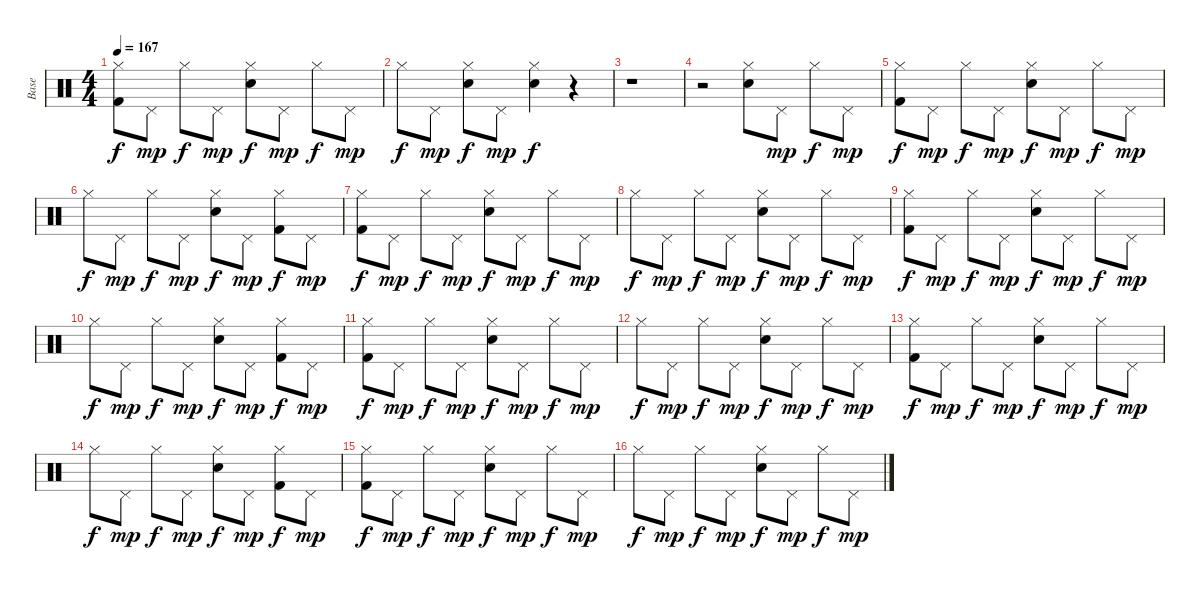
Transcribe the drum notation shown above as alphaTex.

\track ("Base" "Base") {instrument percussion}
\staff {score}
\articulation defaults
\ts (4 4)
\tempo 167
\clef neutral
\ks c
("Hi-Hat (closed)" "Kick (hit) 2").8{dy f} "Pedal Hi-Hat (hit)".8{dy mp} "Hi-Hat (closed)".8{dy f} "Pedal Hi-Hat (hit)".8{dy mp} ("Electric Snare (hit)" "Hi-Hat (closed)").8{dy f} "Pedal Hi-Hat (hit)".8{dy mp} "Hi-Hat (closed)".8{dy f} "Pedal Hi-Hat (hit)".8{dy mp} |
"Hi-Hat (closed)".8{dy f} "Pedal Hi-Hat (hit)".8{dy mp} ("Electric Snare (hit)" "Hi-Hat (closed)").8{dy f} "Pedal Hi-Hat (hit)".8{dy mp} ("Electric Snare (hit)" "Hi-Hat (closed)").4{dy f} r.4 |
r.1 |
r.2 ("Electric Snare (hit)" "Hi-Hat (closed)").8 "Pedal Hi-Hat (hit)".8{dy mp} "Hi-Hat (closed)".8{dy f} "Pedal Hi-Hat (hit)".8{dy mp} |
("Hi-Hat (closed)" "Kick (hit) 2").8{dy f} "Pedal Hi-Hat (hit)".8{dy mp} "Hi-Hat (closed)".8{dy f} "Pedal Hi-Hat (hit)".8{dy mp} ("Electric Snare (hit)" "Hi-Hat (closed)").8{dy f} "Pedal Hi-Hat (hit)".8{dy mp} "Hi-Hat (closed)".8{dy f} "Pedal Hi-Hat (hit)".8{dy mp} |
"Hi-Hat (closed)".8{dy f} "Pedal Hi-Hat (hit)".8{dy mp} "Hi-Hat (closed)".8{dy f} "Pedal Hi-Hat (hit)".8{dy mp} ("Electric Snare (hit)" "Hi-Hat (closed)").8{dy f} "Pedal Hi-Hat (hit)".8{dy mp} ("Hi-Hat (closed)" "Kick (hit) 2").8{dy f} "Pedal Hi-Hat (hit)".8{dy mp} |
("Hi-Hat (closed)" "Kick (hit) 2").8{dy f} "Pedal Hi-Hat (hit)".8{dy mp} "Hi-Hat (closed)".8{dy f} "Pedal Hi-Hat (hit)".8{dy mp} ("Electric Snare (hit)" "Hi-Hat (closed)").8{dy f} "Pedal Hi-Hat (hit)".8{dy mp} "Hi-Hat (closed)".8{dy f} "Pedal Hi-Hat (hit)".8{dy mp} |
"Hi-Hat (closed)".8{dy f} "Pedal Hi-Hat (hit)".8{dy mp} "Hi-Hat (closed)".8{dy f} "Pedal Hi-Hat (hit)".8{dy mp} ("Electric Snare (hit)" "Hi-Hat (closed)").8{dy f} "Pedal Hi-Hat (hit)".8{dy mp} "Hi-Hat (closed)".8{dy f} "Pedal Hi-Hat (hit)".8{dy mp} |
("Hi-Hat (closed)" "Kick (hit) 2").8{dy f} "Pedal Hi-Hat (hit)".8{dy mp} "Hi-Hat (closed)".8{dy f} "Pedal Hi-Hat (hit)".8{dy mp} ("Electric Snare (hit)" "Hi-Hat (closed)").8{dy f} "Pedal Hi-Hat (hit)".8{dy mp} "Hi-Hat (closed)".8{dy f} "Pedal Hi-Hat (hit)".8{dy mp} |
"Hi-Hat (closed)".8{dy f} "Pedal Hi-Hat (hit)".8{dy mp} "Hi-Hat (closed)".8{dy f} "Pedal Hi-Hat (hit)".8{dy mp} ("Electric Snare (hit)" "Hi-Hat (closed)").8{dy f} "Pedal Hi-Hat (hit)".8{dy mp} ("Hi-Hat (closed)" "Kick (hit) 2").8{dy f} "Pedal Hi-Hat (hit)".8{dy mp} |
("Hi-Hat (closed)" "Kick (hit) 2").8{dy f} "Pedal Hi-Hat (hit)".8{dy mp} "Hi-Hat (closed)".8{dy f} "Pedal Hi-Hat (hit)".8{dy mp} ("Electric Snare (hit)" "Hi-Hat (closed)").8{dy f} "Pedal Hi-Hat (hit)".8{dy mp} "Hi-Hat (closed)".8{dy f} "Pedal Hi-Hat (hit)".8{dy mp} |
"Hi-Hat (closed)".8{dy f} "Pedal Hi-Hat (hit)".8{dy mp} "Hi-Hat (closed)".8{dy f} "Pedal Hi-Hat (hit)".8{dy mp} ("Electric Snare (hit)" "Hi-Hat (closed)").8{dy f} "Pedal Hi-Hat (hit)".8{dy mp} "Hi-Hat (closed)".8{dy f} "Pedal Hi-Hat (hit)".8{dy mp} |
("Hi-Hat (closed)" "Kick (hit) 2").8{dy f} "Pedal Hi-Hat (hit)".8{dy mp} "Hi-Hat (closed)".8{dy f} "Pedal Hi-Hat (hit)".8{dy mp} ("Electric Snare (hit)" "Hi-Hat (closed)").8{dy f} "Pedal Hi-Hat (hit)".8{dy mp} "Hi-Hat (closed)".8{dy f} "Pedal Hi-Hat (hit)".8{dy mp} |
"Hi-Hat (closed)".8{dy f} "Pedal Hi-Hat (hit)".8{dy mp} "Hi-Hat (closed)".8{dy f} "Pedal Hi-Hat (hit)".8{dy mp} ("Electric Snare (hit)" "Hi-Hat (closed)").8{dy f} "Pedal Hi-Hat (hit)".8{dy mp} ("Hi-Hat (closed)" "Kick (hit) 2").8{dy f} "Pedal Hi-Hat (hit)".8{dy mp} |
("Hi-Hat (closed)" "Kick (hit) 2").8{dy f} "Pedal Hi-Hat (hit)".8{dy mp} "Hi-Hat (closed)".8{dy f} "Pedal Hi-Hat (hit)".8{dy mp} ("Electric Snare (hit)" "Hi-Hat (closed)").8{dy f} "Pedal Hi-Hat (hit)".8{dy mp} "Hi-Hat (closed)".8{dy f} "Pedal Hi-Hat (hit)".8{dy mp} |
"Hi-Hat (closed)".8{dy f} "Pedal Hi-Hat (hit)".8{dy mp} "Hi-Hat (closed)".8{dy f} "Pedal Hi-Hat (hit)".8{dy mp} ("Electric Snare (hit)" "Hi-Hat (closed)").8{dy f} "Pedal Hi-Hat (hit)".8{dy mp} "Hi-Hat (closed)".8{dy f} "Pedal Hi-Hat (hit)".8{dy mp}
